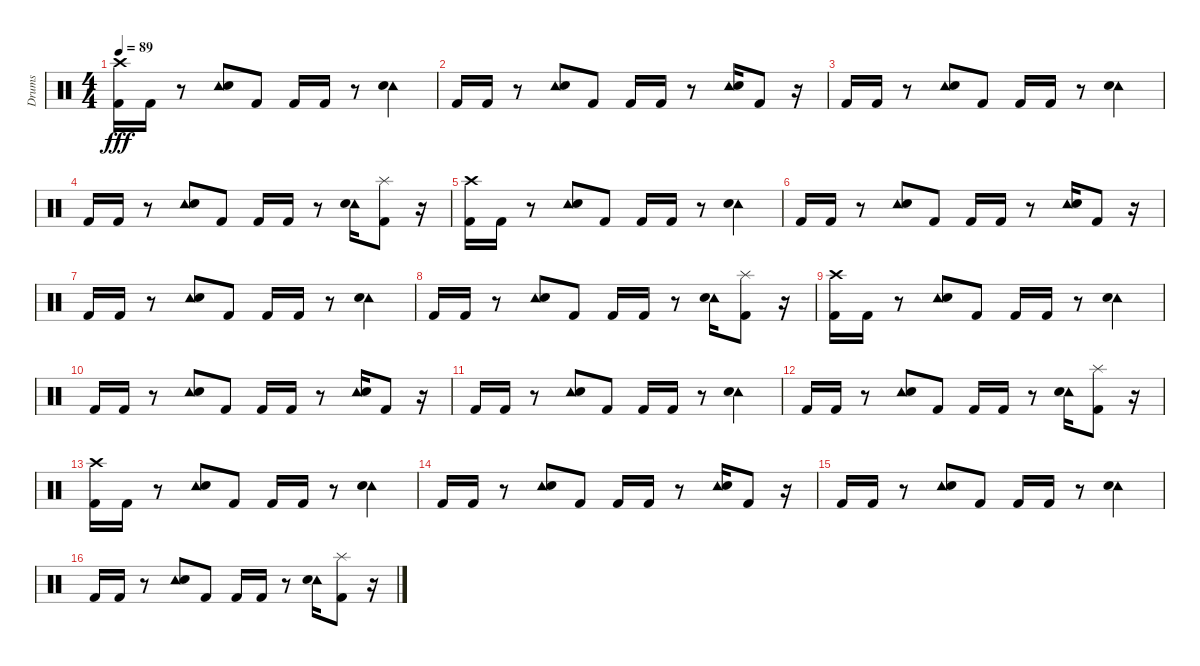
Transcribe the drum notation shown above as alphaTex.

\track ("Drums" "Drums") {instrument percussion}
\staff {score}
\articulation defaults
\ts (4 4)
\tempo 89
\clef neutral
\ks c
("Crash high (hit)" "Kick (hit) 2").16{dy fff} "Kick (hit) 2".16 r.8 ("Tambourine (hit)" "Electric Snare (hit)").8 "Kick (hit) 2".8 "Kick (hit) 2".16 "Kick (hit) 2".16 r.8 ("Tambourine (hit)" "Electric Snare (hit)").4 |
"Kick (hit) 2".16 "Kick (hit) 2".16 r.8 ("Tambourine (hit)" "Electric Snare (hit)").8 "Kick (hit) 2".8 "Kick (hit) 2".16 "Kick (hit) 2".16 r.8 ("Tambourine (hit)" "Electric Snare (hit)").16 "Kick (hit) 2".8 r.16 |
"Kick (hit) 2".16 "Kick (hit) 2".16 r.8 ("Tambourine (hit)" "Electric Snare (hit)").8 "Kick (hit) 2".8 "Kick (hit) 2".16 "Kick (hit) 2".16 r.8 ("Tambourine (hit)" "Electric Snare (hit)").4 |
"Kick (hit) 2".16 "Kick (hit) 2".16 r.8 ("Tambourine (hit)" "Electric Snare (hit)").8 "Kick (hit) 2".8 "Kick (hit) 2".16 "Kick (hit) 2".16 r.8 ("Tambourine (hit)" "Electric Snare (hit)").16 ("Splash (hit)" "Kick (hit) 2").8 r.16 |
("Crash high (hit)" "Kick (hit) 2").16 "Kick (hit) 2".16 r.8 ("Tambourine (hit)" "Electric Snare (hit)").8 "Kick (hit) 2".8 "Kick (hit) 2".16 "Kick (hit) 2".16 r.8 ("Tambourine (hit)" "Electric Snare (hit)").4 |
"Kick (hit) 2".16 "Kick (hit) 2".16 r.8 ("Tambourine (hit)" "Electric Snare (hit)").8 "Kick (hit) 2".8 "Kick (hit) 2".16 "Kick (hit) 2".16 r.8 ("Tambourine (hit)" "Electric Snare (hit)").16 "Kick (hit) 2".8 r.16 |
"Kick (hit) 2".16 "Kick (hit) 2".16 r.8 ("Tambourine (hit)" "Electric Snare (hit)").8 "Kick (hit) 2".8 "Kick (hit) 2".16 "Kick (hit) 2".16 r.8 ("Tambourine (hit)" "Electric Snare (hit)").4 |
"Kick (hit) 2".16 "Kick (hit) 2".16 r.8 ("Tambourine (hit)" "Electric Snare (hit)").8 "Kick (hit) 2".8 "Kick (hit) 2".16 "Kick (hit) 2".16 r.8 ("Tambourine (hit)" "Electric Snare (hit)").16 ("Splash (hit)" "Kick (hit) 2").8 r.16 |
("Crash high (hit)" "Kick (hit) 2").16 "Kick (hit) 2".16 r.8 ("Tambourine (hit)" "Electric Snare (hit)").8 "Kick (hit) 2".8 "Kick (hit) 2".16 "Kick (hit) 2".16 r.8 ("Tambourine (hit)" "Electric Snare (hit)").4 |
"Kick (hit) 2".16 "Kick (hit) 2".16 r.8 ("Tambourine (hit)" "Electric Snare (hit)").8 "Kick (hit) 2".8 "Kick (hit) 2".16 "Kick (hit) 2".16 r.8 ("Tambourine (hit)" "Electric Snare (hit)").16 "Kick (hit) 2".8 r.16 |
"Kick (hit) 2".16 "Kick (hit) 2".16 r.8 ("Tambourine (hit)" "Electric Snare (hit)").8 "Kick (hit) 2".8 "Kick (hit) 2".16 "Kick (hit) 2".16 r.8 ("Tambourine (hit)" "Electric Snare (hit)").4 |
"Kick (hit) 2".16 "Kick (hit) 2".16 r.8 ("Tambourine (hit)" "Electric Snare (hit)").8 "Kick (hit) 2".8 "Kick (hit) 2".16 "Kick (hit) 2".16 r.8 ("Tambourine (hit)" "Electric Snare (hit)").16 ("Splash (hit)" "Kick (hit) 2").8 r.16 |
("Crash high (hit)" "Kick (hit) 2").16 "Kick (hit) 2".16 r.8 ("Tambourine (hit)" "Electric Snare (hit)").8 "Kick (hit) 2".8 "Kick (hit) 2".16 "Kick (hit) 2".16 r.8 ("Tambourine (hit)" "Electric Snare (hit)").4 |
"Kick (hit) 2".16 "Kick (hit) 2".16 r.8 ("Tambourine (hit)" "Electric Snare (hit)").8 "Kick (hit) 2".8 "Kick (hit) 2".16 "Kick (hit) 2".16 r.8 ("Tambourine (hit)" "Electric Snare (hit)").16 "Kick (hit) 2".8 r.16 |
"Kick (hit) 2".16 "Kick (hit) 2".16 r.8 ("Tambourine (hit)" "Electric Snare (hit)").8 "Kick (hit) 2".8 "Kick (hit) 2".16 "Kick (hit) 2".16 r.8 ("Tambourine (hit)" "Electric Snare (hit)").4 |
"Kick (hit) 2".16 "Kick (hit) 2".16 r.8 ("Tambourine (hit)" "Electric Snare (hit)").8 "Kick (hit) 2".8 "Kick (hit) 2".16 "Kick (hit) 2".16 r.8 ("Tambourine (hit)" "Electric Snare (hit)").16 ("Splash (hit)" "Kick (hit) 2").8 r.16
